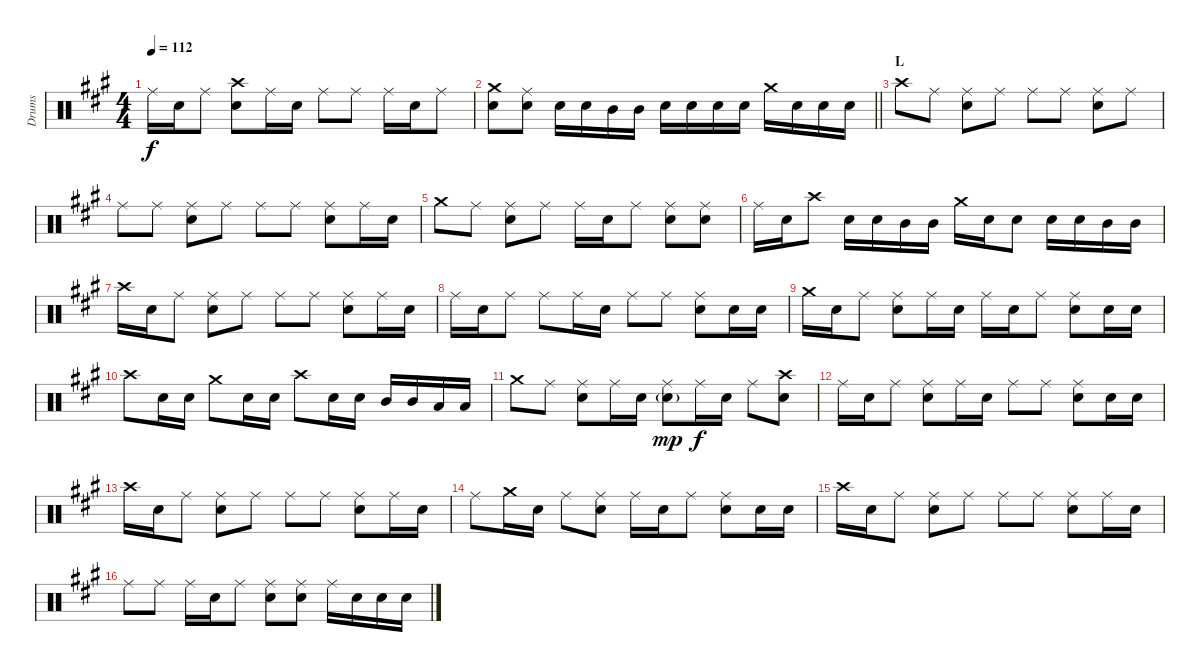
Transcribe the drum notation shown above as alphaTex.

\track ("Drums" "Drums") {instrument percussion}
\staff {score}
\articulation defaults
\ts (4 4)
\tempo 112
\clef neutral
\ks a "Ride (middle)".16{dy f} "Snare (hit) 2".16 "Ride (middle)".8
("Crash high (hit)" "Snare (hit) 2").8 "Ride (middle)".16 "Snare (hit) 2".16 "Ride (middle)".8 "Ride (middle)".8 "Ride (middle)".16 "Snare (hit) 2".16 "Ride (middle)".8 |
\barLineRight lightlight
("Crash medium (hit)" "Snare (hit) 2").8 ("Ride (middle)" "Snare (hit) 2").8 "Snare (hit) 2".16 "Snare (hit) 2".16 "Mid Tom (hit)".16 "Mid Tom (hit)".16 "Snare (hit) 2".16 "Snare (hit) 2".16 "Snare (hit) 2".16 "Snare (hit) 2".16 "Crash medium (hit)".16 "Snare (hit) 2".16 "Snare (hit) 2".16 "Snare (hit) 2".16 |
\section ("" "L")
"Crash high (hit)".8 "Ride (middle)".8 ("Ride (middle)" "Snare (hit) 2").8 "Ride (middle)".8 "Ride (middle)".8 "Ride (middle)".8 ("Ride (middle)" "Snare (hit) 2").8 "Ride (middle)".8 |
"Ride (middle)".8 "Ride (middle)".8 ("Ride (middle)" "Snare (hit) 2").8 "Ride (middle)".8 "Ride (middle)".8 "Ride (middle)".8 ("Ride (middle)" "Snare (hit) 2").8 "Ride (middle)".16 "Snare (hit) 2".16 |
"Crash medium (hit)".8 "Ride (middle)".8 ("Ride (middle)" "Snare (hit) 2").8 "Ride (middle)".8 "Ride (middle)".16 "Snare (hit) 2".16 "Ride (middle)".8 ("Ride (middle)" "Snare (hit) 2").8 ("Ride (middle)" "Snare (hit) 2").8 |
"Ride (middle)".16 "Snare (hit) 2".16 "Crash high (hit)".8 "Snare (hit) 2".16 "Snare (hit) 2".16 "Mid Tom (hit)".16 "Mid Tom (hit)".16 "Crash medium (hit)".16 "Snare (hit) 2".16 "Snare (hit) 2".8 "Snare (hit) 2".16 "Snare (hit) 2".16 "Mid Tom (hit)".16 "Mid Tom (hit)".16 |
"Crash high (hit)".16 "Snare (hit) 2".16 "Ride (middle)".8 ("Ride (middle)" "Snare (hit) 2").8 "Ride (middle)".8 "Ride (middle)".8 "Ride (middle)".8 ("Ride (middle)" "Snare (hit) 2").8 "Ride (middle)".16 "Snare (hit) 2".16 |
"Ride (middle)".16 "Snare (hit) 2".16 "Ride (middle)".8 "Ride (middle)".8 "Ride (middle)".16 "Snare (hit) 2".16 "Ride (middle)".8 "Ride (middle)".8 ("Ride (middle)" "Snare (hit) 2").8 "Snare (hit) 2".16 "Snare (hit) 2".16 |
"Crash medium (hit)".16 "Snare (hit) 2".16 "Ride (middle)".8 ("Ride (middle)" "Snare (hit) 2").8 "Ride (middle)".16 "Snare (hit) 2".16 "Ride (middle)".16 "Snare (hit) 2".16 "Ride (middle)".8 ("Ride (middle)" "Snare (hit) 2").8 "Snare (hit) 2".16 "Snare (hit) 2".16 |
"Crash high (hit)".8 "Snare (hit) 2".16 "Snare (hit) 2".16 "Crash medium (hit)".8 "Snare (hit) 2".16 "Snare (hit) 2".16 "Crash high (hit)".8 "Snare (hit) 2".16 "Snare (hit) 2".16 "Mid Tom (hit)".16 "Mid Tom (hit)".16 "Low Tom (hit)".16 "Low Tom (hit)".16 |
"Crash medium (hit)".8 "Ride (middle)".8 ("Ride (middle)" "Snare (hit) 2").8 "Ride (middle)".16 "Snare (hit) 2".16 ("Ride (middle)" "Snare (hit) 2"{g}).8{dy mp} "Ride (middle)".16{dy f} "Snare (hit) 2".16 "Ride (middle)".8 ("Crash high (hit)" "Snare (hit) 2").8 |
"Ride (middle)".16 "Snare (hit) 2".16 "Ride (middle)".8 ("Ride (middle)" "Snare (hit) 2").8 "Ride (middle)".16 "Snare (hit) 2".16 "Ride (middle)".8 "Ride (middle)".8 ("Ride (middle)" "Snare (hit) 2").8 "Snare (hit) 2".16 "Snare (hit) 2".16 |
"Crash high (hit)".16 "Snare (hit) 2".16 "Ride (middle)".8 ("Ride (middle)" "Snare (hit) 2").8 "Ride (middle)".8 "Ride (middle)".8 "Ride (middle)".8 ("Ride (middle)" "Snare (hit) 2").8 "Ride (middle)".16 "Snare (hit) 2".16 |
"Ride (middle)".8 "Crash medium (hit)".16 "Snare (hit) 2".16 "Ride (middle)".8 ("Ride (middle)" "Snare (hit) 2").8 "Ride (middle)".16 "Snare (hit) 2".16 "Ride (middle)".8 ("Ride (middle)" "Snare (hit) 2").8 "Snare (hit) 2".16 "Snare (hit) 2".16 |
"Crash high (hit)".16 "Snare (hit) 2".16 "Ride (middle)".8 ("Ride (middle)" "Snare (hit) 2").8 "Ride (middle)".8 "Ride (middle)".8 "Ride (middle)".8 ("Ride (middle)" "Snare (hit) 2").8 "Ride (middle)".16 "Snare (hit) 2".16 |
"Ride (middle)".8 "Ride (middle)".8 "Ride (middle)".16 "Snare (hit) 2".16 "Ride (middle)".8 ("Ride (middle)" "Snare (hit) 2").8 ("Ride (middle)" "Snare (hit) 2").8 "Ride (middle)".16 "Snare (hit) 2".16 "Snare (hit) 2".16 "Snare (hit) 2".16
